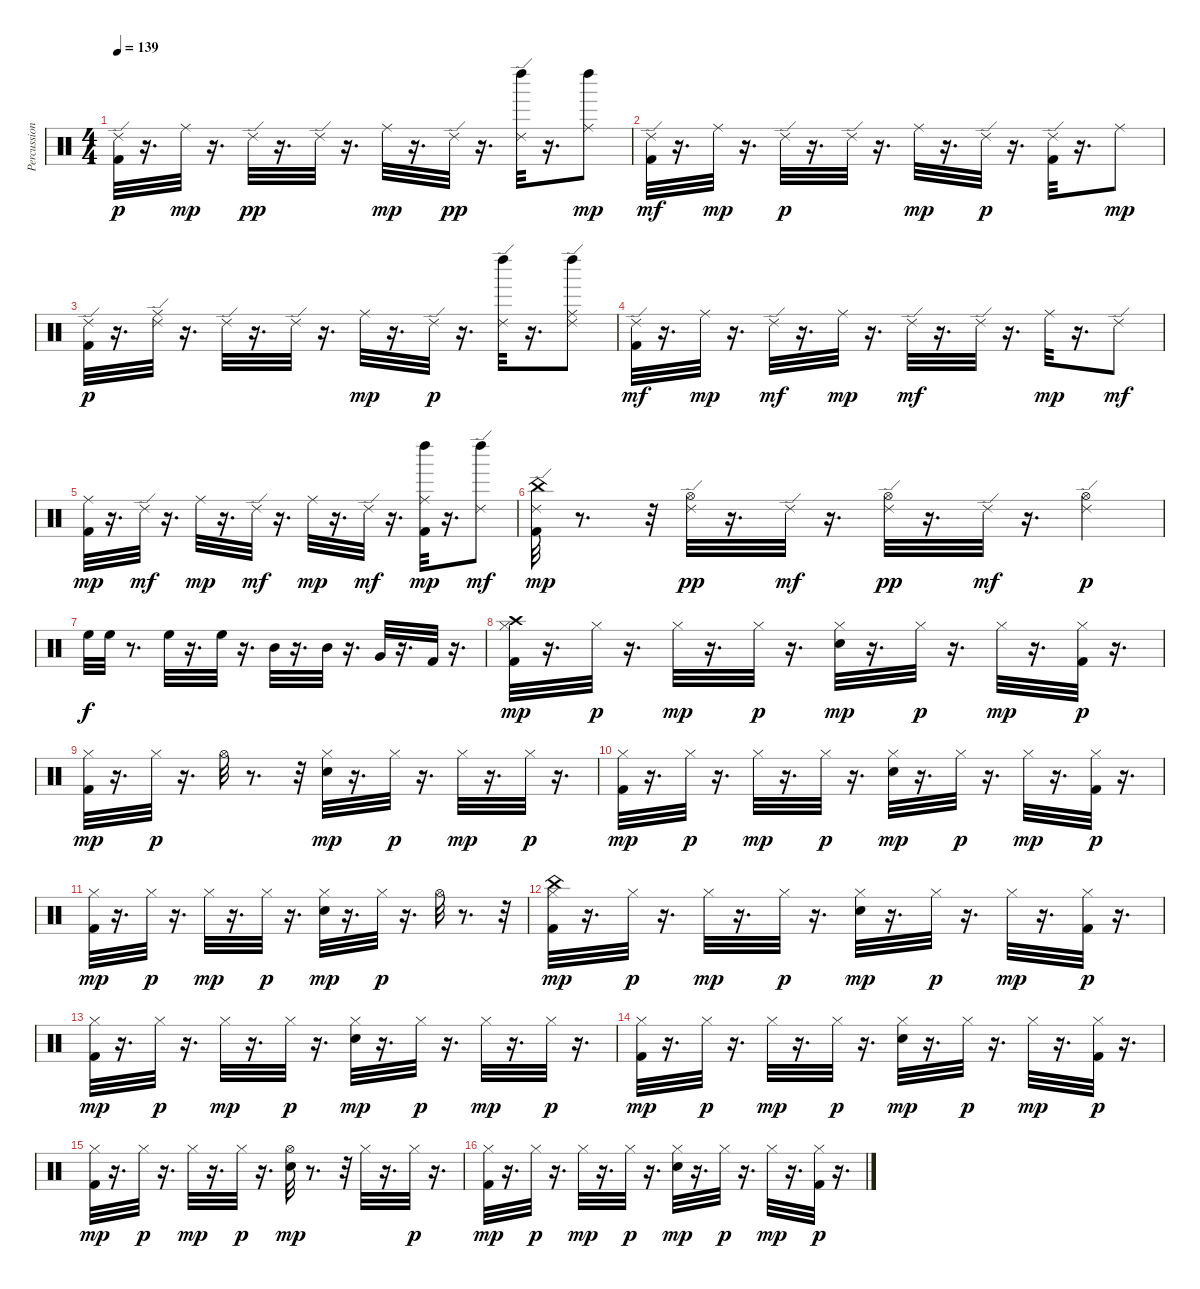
\track ("Percussion" "Percussion") {instrument percussion}
\staff {score}
\articulation defaults
\ts (4 4)
\tempo 139
\clef neutral
\ks c
("Ride (edge) 2" "Kick (hit) 2").32{dy p} r.16{d} "Ride (middle)".32{dy mp} r.16{d} "Ride (edge) 2".32{dy pp} r.16{d} "Ride (edge) 2".32 r.16{d} "Ride (middle)".32{dy mp} r.16{d} "Ride (edge) 2".32{dy pp} r.16{d} ("Left Maraca (hit)" "Ride (edge) 2").32 r.16{d} ("Left Maraca (hit)" "Ride (middle)").8{dy mp} |
("Ride (edge) 2" "Kick (hit) 2").32{dy mf} r.16{d} "Ride (middle)".32{dy mp} r.16{d} "Ride (edge) 2".32{dy p} r.16{d} "Ride (edge) 2".32 r.16{d} "Ride (middle)".32{dy mp} r.16{d} "Ride (edge) 2".32{dy p} r.16{d} ("Ride (edge) 2" "Kick (hit) 2").32 r.16{d} "Ride (middle)".8{dy mp} |
("Ride (edge) 2" "Kick (hit) 2").32{dy p} r.16{d} ("Ride (middle)" "Ride (edge) 2").32 r.16{d} "Ride (edge) 2".32 r.16{d} "Ride (edge) 2".32 r.16{d} "Ride (middle)".32{dy mp} r.16{d} "Ride (edge) 2".32{dy p} r.16{d} ("Left Maraca (hit)" "Ride (edge) 2").32 r.16{d} ("Left Maraca (hit)" "Ride (middle)" "Ride (edge) 2").8 |
("Ride (edge) 2" "Kick (hit) 2").32{dy mf} r.16{d} "Ride (middle)".32{dy mp} r.16{d} "Ride (edge) 2".32{dy mf} r.16{d} "Ride (middle)".32{dy mp} r.16{d} "Ride (edge) 2".32{dy mf} r.16{d} "Ride (edge) 2".32 r.16{d} "Ride (middle)".32{dy mp} r.16{d} "Ride (edge) 2".8{dy mf} |
("Ride (middle)" "Kick (hit) 2").32{dy mp} r.16{d} "Ride (edge) 2".32{dy mf} r.16{d} "Ride (middle)".32{dy mp} r.16{d} "Ride (edge) 2".32{dy mf} r.16{d} "Ride (middle)".32{dy mp} r.16{d} "Ride (edge) 2".32{dy mf} r.16{d} ("Left Maraca (hit)" "Ride (middle)" "Kick (hit) 2").32{dy mp} r.16{d} ("Left Maraca (hit)" "Ride (edge) 2").8{dy mf} |
("Ride (edge) 2" "China (hit)" "Kick (hit) 2").32{dy mp} r.8{d} r.32 ("Ride (edge) 2" "Hi-Hat (open)").32{dy pp} r.16{d} "Ride (edge) 2".32{dy mf} r.16{d} ("Ride (edge) 2" "Hi-Hat (open)").32{dy pp} r.16{d} "Ride (edge) 2".32{dy mf} r.16{d} ("Ride (edge) 2" "Hi-Hat (open)").4{dy p} |
"High Floor Tom (hit)".32{dy f} "High Floor Tom (hit)".32 r.8{d} "High Floor Tom (hit)".32 r.16{d} "High Floor Tom (hit)".32 r.16{d} "Mid Tom (hit)".32 r.16{d} "Mid Tom (hit)".32 r.16{d} "Very Low Tom (hit)".32 r.16{d} "Kick (hit) 2".32 r.16{d} |
("Crash high (hit)" "Hi-Hat (closed)" "Kick (hit) 2").32{dy mp} r.16{d} "Hi-Hat (closed)".32{dy p} r.16{d} "Hi-Hat (closed)".32{dy mp} r.16{d} "Hi-Hat (closed)".32{dy p} r.16{d} ("Hi-Hat (closed)" "Snare (hit) 2").32{dy mp} r.16{d} "Hi-Hat (closed)".32{dy p} r.16{d} "Hi-Hat (closed)".32{dy mp} r.16{d} ("Hi-Hat (closed)" "Kick (hit) 2").32{dy p} r.16{d} |
("Hi-Hat (closed)" "Kick (hit) 2").32{dy mp} r.16{d} "Hi-Hat (closed)".32{dy p} r.16{d} "Hi-Hat (open)".32 r.8{d} r.32 ("Hi-Hat (closed)" "Snare (hit) 2").32{dy mp} r.16{d} "Hi-Hat (closed)".32{dy p} r.16{d} "Hi-Hat (closed)".32{dy mp} r.16{d} "Hi-Hat (closed)".32{dy p} r.16{d} |
("Hi-Hat (closed)" "Kick (hit) 2").32{dy mp} r.16{d} "Hi-Hat (closed)".32{dy p} r.16{d} "Hi-Hat (closed)".32{dy mp} r.16{d} "Hi-Hat (closed)".32{dy p} r.16{d} ("Hi-Hat (closed)" "Snare (hit) 2").32{dy mp} r.16{d} "Hi-Hat (closed)".32{dy p} r.16{d} "Hi-Hat (closed)".32{dy mp} r.16{d} ("Hi-Hat (closed)" "Kick (hit) 2").32{dy p} r.16{d} |
("Hi-Hat (closed)" "Kick (hit) 2").32{dy mp} r.16{d} "Hi-Hat (closed)".32{dy p} r.16{d} "Hi-Hat (closed)".32{dy mp} r.16{d} "Hi-Hat (closed)".32{dy p} r.16{d} ("Hi-Hat (closed)" "Snare (hit) 2").32{dy mp} r.16{d} "Hi-Hat (closed)".32{dy p} r.16{d} "Hi-Hat (open)".32 r.8{d} r.32 |
("China (hit)" "Hi-Hat (closed)" "Kick (hit) 2").32{dy mp} r.16{d} "Hi-Hat (closed)".32{dy p} r.16{d} "Hi-Hat (closed)".32{dy mp} r.16{d} "Hi-Hat (closed)".32{dy p} r.16{d} ("Hi-Hat (closed)" "Snare (hit) 2").32{dy mp} r.16{d} "Hi-Hat (closed)".32{dy p} r.16{d} "Hi-Hat (closed)".32{dy mp} r.16{d} ("Hi-Hat (closed)" "Kick (hit) 2").32{dy p} r.16{d} |
("Hi-Hat (closed)" "Kick (hit) 2").32{dy mp} r.16{d} "Hi-Hat (closed)".32{dy p} r.16{d} "Hi-Hat (closed)".32{dy mp} r.16{d} "Hi-Hat (closed)".32{dy p} r.16{d} ("Hi-Hat (closed)" "Snare (hit) 2").32{dy mp} r.16{d} "Hi-Hat (closed)".32{dy p} r.16{d} "Hi-Hat (closed)".32{dy mp} r.16{d} "Hi-Hat (closed)".32{dy p} r.16{d} |
("Hi-Hat (closed)" "Kick (hit) 2").32{dy mp} r.16{d} "Hi-Hat (closed)".32{dy p} r.16{d} "Hi-Hat (closed)".32{dy mp} r.16{d} "Hi-Hat (closed)".32{dy p} r.16{d} ("Hi-Hat (closed)" "Snare (hit) 2").32{dy mp} r.16{d} "Hi-Hat (closed)".32{dy p} r.16{d} "Hi-Hat (closed)".32{dy mp} r.16{d} ("Hi-Hat (closed)" "Kick (hit) 2").32{dy p} r.16{d} |
("Hi-Hat (closed)" "Kick (hit) 2").32{dy mp} r.16{d} "Hi-Hat (closed)".32{dy p} r.16{d} "Hi-Hat (closed)".32{dy mp} r.16{d} "Hi-Hat (closed)".32{dy p} r.16{d} ("Hi-Hat (open)" "Snare (hit) 2").32{dy mp} r.8{d} r.32 "Hi-Hat (closed)".32 r.16{d} "Hi-Hat (closed)".32{dy p} r.16{d} |
("Hi-Hat (closed)" "Kick (hit) 2").32{dy mp} r.16{d} "Hi-Hat (closed)".32{dy p} r.16{d} "Hi-Hat (closed)".32{dy mp} r.16{d} "Hi-Hat (closed)".32{dy p} r.16{d} ("Hi-Hat (closed)" "Snare (hit) 2").32{dy mp} r.16{d} "Hi-Hat (closed)".32{dy p} r.16{d} "Hi-Hat (closed)".32{dy mp} r.16{d} ("Hi-Hat (closed)" "Kick (hit) 2").32{dy p} r.16{d}
